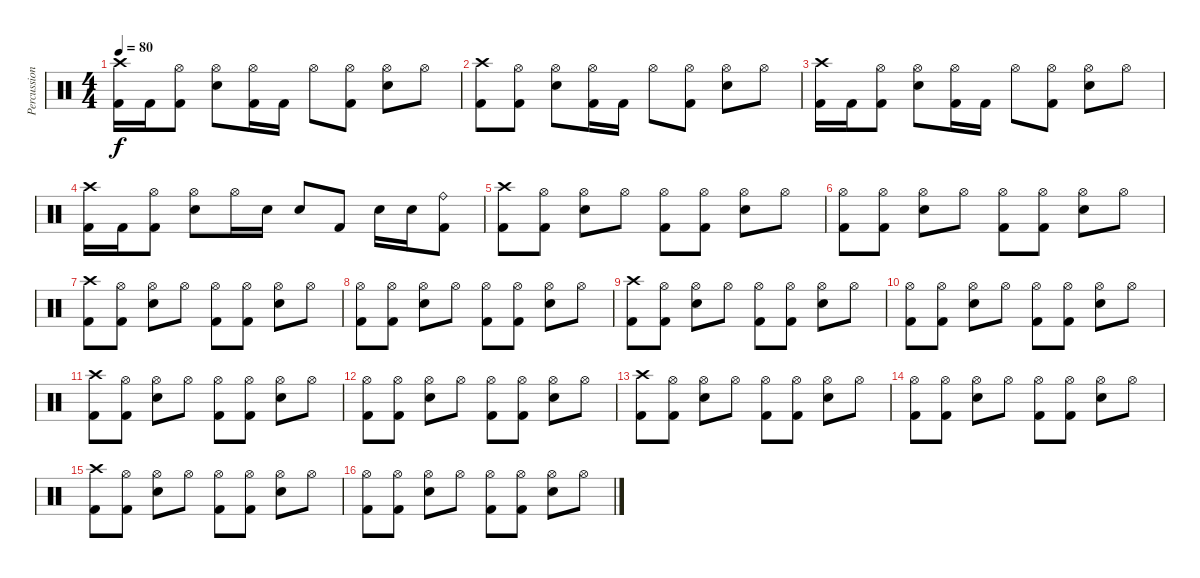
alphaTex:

\track ("Percussion" "Percussion") {instrument percussion}
\staff {score}
\articulation defaults
\ts (4 4)
\tempo 80
\clef neutral
\ks c
("Kick (hit) 2" "Crash high (hit)").16{dy f} "Kick (hit) 2".16 ("Kick (hit) 2" "Hi-Hat (open)").8 ("Electric Snare (hit)" "Hi-Hat (open)").8 ("Hi-Hat (open)" "Kick (hit) 2").16 "Kick (hit) 2".16 "Hi-Hat (open)".8 ("Hi-Hat (open)" "Kick (hit) 2").8 ("Electric Snare (hit)" "Hi-Hat (open)").8 "Hi-Hat (open)".8 |
("Kick (hit) 2" "Crash high (hit)").8 ("Kick (hit) 2" "Hi-Hat (open)").8 ("Electric Snare (hit)" "Hi-Hat (open)").8 ("Hi-Hat (open)" "Kick (hit) 2").16 "Kick (hit) 2".16 "Hi-Hat (open)".8 ("Hi-Hat (open)" "Kick (hit) 2").8 ("Electric Snare (hit)" "Hi-Hat (open)").8 "Hi-Hat (open)".8 |
("Kick (hit) 2" "Crash high (hit)").16 "Kick (hit) 2".16 ("Kick (hit) 2" "Hi-Hat (open)").8 ("Electric Snare (hit)" "Hi-Hat (open)").8 ("Hi-Hat (open)" "Kick (hit) 2").16 "Kick (hit) 2".16 "Hi-Hat (open)".8 ("Hi-Hat (open)" "Kick (hit) 2").8 ("Electric Snare (hit)" "Hi-Hat (open)").8 "Hi-Hat (open)".8 |
("Kick (hit) 2" "Crash high (hit)").16 "Kick (hit) 2".16 ("Kick (hit) 2" "Hi-Hat (open)").8 ("Electric Snare (hit)" "Hi-Hat (open)").8 "Hi-Hat (open)".16 "Electric Snare (hit)".16 "Electric Snare (hit)".8 "Kick (hit) 2".8 "Electric Snare (hit)".16 "Electric Snare (hit)".16 ("Kick (hit) 2" "Ride (bell)").8 |
("Crash high (hit)" "Kick (hit) 2").8 ("Kick (hit) 2" "Hi-Hat (open)").8 ("Electric Snare (hit)" "Hi-Hat (open)").8 "Hi-Hat (open)".8 ("Hi-Hat (open)" "Kick (hit) 2").8 ("Hi-Hat (open)" "Kick (hit) 2").8 ("Electric Snare (hit)" "Hi-Hat (open)").8 "Hi-Hat (open)".8 |
("Hi-Hat (open)" "Kick (hit) 2").8 ("Kick (hit) 2" "Hi-Hat (open)").8 ("Electric Snare (hit)" "Hi-Hat (open)").8 "Hi-Hat (open)".8 ("Hi-Hat (open)" "Kick (hit) 2").8 ("Hi-Hat (open)" "Kick (hit) 2").8 ("Electric Snare (hit)" "Hi-Hat (open)").8 "Hi-Hat (open)".8 |
("Crash high (hit)" "Kick (hit) 2").8 ("Kick (hit) 2" "Hi-Hat (open)").8 ("Electric Snare (hit)" "Hi-Hat (open)").8 "Hi-Hat (open)".8 ("Hi-Hat (open)" "Kick (hit) 2").8 ("Hi-Hat (open)" "Kick (hit) 2").8 ("Electric Snare (hit)" "Hi-Hat (open)").8 "Hi-Hat (open)".8 |
("Hi-Hat (open)" "Kick (hit) 2").8 ("Kick (hit) 2" "Hi-Hat (open)").8 ("Electric Snare (hit)" "Hi-Hat (open)").8 "Hi-Hat (open)".8 ("Hi-Hat (open)" "Kick (hit) 2").8 ("Hi-Hat (open)" "Kick (hit) 2").8 ("Electric Snare (hit)" "Hi-Hat (open)").8 "Hi-Hat (open)".8 |
("Crash high (hit)" "Kick (hit) 2").8 ("Kick (hit) 2" "Hi-Hat (open)").8 ("Electric Snare (hit)" "Hi-Hat (open)").8 "Hi-Hat (open)".8 ("Hi-Hat (open)" "Kick (hit) 2").8 ("Hi-Hat (open)" "Kick (hit) 2").8 ("Electric Snare (hit)" "Hi-Hat (open)").8 "Hi-Hat (open)".8 |
("Hi-Hat (open)" "Kick (hit) 2").8 ("Kick (hit) 2" "Hi-Hat (open)").8 ("Electric Snare (hit)" "Hi-Hat (open)").8 "Hi-Hat (open)".8 ("Hi-Hat (open)" "Kick (hit) 2").8 ("Hi-Hat (open)" "Kick (hit) 2").8 ("Electric Snare (hit)" "Hi-Hat (open)").8 "Hi-Hat (open)".8 |
("Crash high (hit)" "Kick (hit) 2").8 ("Kick (hit) 2" "Hi-Hat (open)").8 ("Electric Snare (hit)" "Hi-Hat (open)").8 "Hi-Hat (open)".8 ("Hi-Hat (open)" "Kick (hit) 2").8 ("Hi-Hat (open)" "Kick (hit) 2").8 ("Electric Snare (hit)" "Hi-Hat (open)").8 "Hi-Hat (open)".8 |
("Hi-Hat (open)" "Kick (hit) 2").8 ("Kick (hit) 2" "Hi-Hat (open)").8 ("Electric Snare (hit)" "Hi-Hat (open)").8 "Hi-Hat (open)".8 ("Hi-Hat (open)" "Kick (hit) 2").8 ("Hi-Hat (open)" "Kick (hit) 2").8 ("Electric Snare (hit)" "Hi-Hat (open)").8 "Hi-Hat (open)".8 |
("Crash high (hit)" "Kick (hit) 2").8 ("Kick (hit) 2" "Hi-Hat (open)").8 ("Electric Snare (hit)" "Hi-Hat (open)").8 "Hi-Hat (open)".8 ("Hi-Hat (open)" "Kick (hit) 2").8 ("Hi-Hat (open)" "Kick (hit) 2").8 ("Electric Snare (hit)" "Hi-Hat (open)").8 "Hi-Hat (open)".8 |
("Hi-Hat (open)" "Kick (hit) 2").8 ("Kick (hit) 2" "Hi-Hat (open)").8 ("Electric Snare (hit)" "Hi-Hat (open)").8 "Hi-Hat (open)".8 ("Hi-Hat (open)" "Kick (hit) 2").8 ("Hi-Hat (open)" "Kick (hit) 2").8 ("Electric Snare (hit)" "Hi-Hat (open)").8 "Hi-Hat (open)".8 |
("Crash high (hit)" "Kick (hit) 2").8 ("Kick (hit) 2" "Hi-Hat (open)").8 ("Electric Snare (hit)" "Hi-Hat (open)").8 "Hi-Hat (open)".8 ("Hi-Hat (open)" "Kick (hit) 2").8 ("Hi-Hat (open)" "Kick (hit) 2").8 ("Electric Snare (hit)" "Hi-Hat (open)").8 "Hi-Hat (open)".8 |
("Hi-Hat (open)" "Kick (hit) 2").8 ("Kick (hit) 2" "Hi-Hat (open)").8 ("Electric Snare (hit)" "Hi-Hat (open)").8 "Hi-Hat (open)".8 ("Hi-Hat (open)" "Kick (hit) 2").8 ("Hi-Hat (open)" "Kick (hit) 2").8 ("Electric Snare (hit)" "Hi-Hat (open)").8 "Hi-Hat (open)".8
